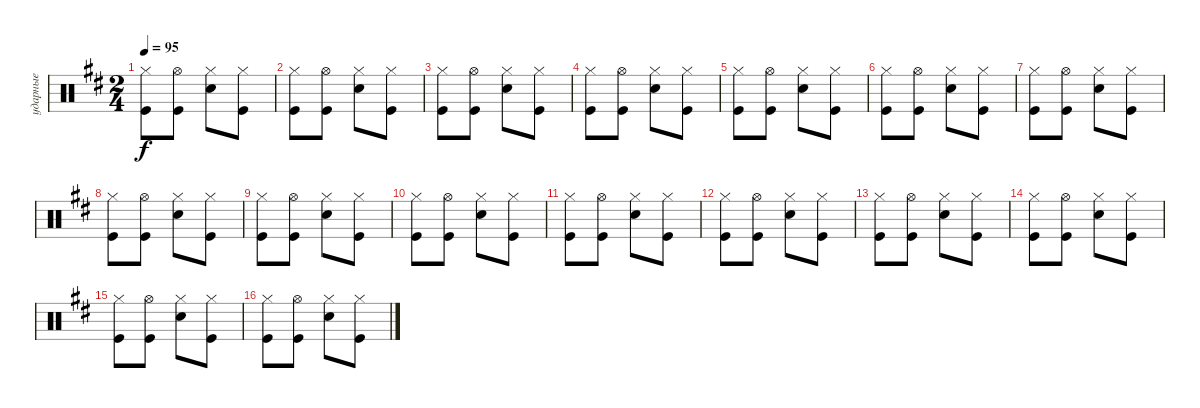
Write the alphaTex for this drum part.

\track ("ударные" "ударные") {instrument percussion}
\staff {score}
\articulation defaults
\ts (2 4)
\tempo 95
\clef neutral
\ks bminor
("Kick (hit)" "Hi-Hat (closed)").8{dy f} ("Kick (hit)" "Hi-Hat (open)").8 ("Snare (hit) 2" "Hi-Hat (closed)").8 ("Hi-Hat (closed)" "Kick (hit)").8 |
("Kick (hit)" "Hi-Hat (closed)").8 ("Kick (hit)" "Hi-Hat (open)").8 ("Snare (hit) 2" "Hi-Hat (closed)").8 ("Hi-Hat (closed)" "Kick (hit)").8 |
("Kick (hit)" "Hi-Hat (closed)").8 ("Kick (hit)" "Hi-Hat (open)").8 ("Snare (hit) 2" "Hi-Hat (closed)").8 ("Hi-Hat (closed)" "Kick (hit)").8 |
("Kick (hit)" "Hi-Hat (closed)").8 ("Kick (hit)" "Hi-Hat (open)").8 ("Snare (hit) 2" "Hi-Hat (closed)").8 ("Hi-Hat (closed)" "Kick (hit)").8 |
("Kick (hit)" "Hi-Hat (closed)").8 ("Kick (hit)" "Hi-Hat (open)").8 ("Snare (hit) 2" "Hi-Hat (closed)").8 ("Hi-Hat (closed)" "Kick (hit)").8 |
("Kick (hit)" "Hi-Hat (closed)").8 ("Kick (hit)" "Hi-Hat (open)").8 ("Snare (hit) 2" "Hi-Hat (closed)").8 ("Hi-Hat (closed)" "Kick (hit)").8 |
("Kick (hit)" "Hi-Hat (closed)").8 ("Kick (hit)" "Hi-Hat (open)").8 ("Snare (hit) 2" "Hi-Hat (closed)").8 ("Hi-Hat (closed)" "Kick (hit)").8 |
("Kick (hit)" "Hi-Hat (closed)").8 ("Kick (hit)" "Hi-Hat (open)").8 ("Snare (hit) 2" "Hi-Hat (closed)").8 ("Hi-Hat (closed)" "Kick (hit)").8 |
("Kick (hit)" "Hi-Hat (closed)").8 ("Kick (hit)" "Hi-Hat (open)").8 ("Snare (hit) 2" "Hi-Hat (closed)").8 ("Hi-Hat (closed)" "Kick (hit)").8 |
("Kick (hit)" "Hi-Hat (closed)").8 ("Kick (hit)" "Hi-Hat (open)").8 ("Snare (hit) 2" "Hi-Hat (closed)").8 ("Hi-Hat (closed)" "Kick (hit)").8 |
("Kick (hit)" "Hi-Hat (closed)").8 ("Kick (hit)" "Hi-Hat (open)").8 ("Snare (hit) 2" "Hi-Hat (closed)").8 ("Hi-Hat (closed)" "Kick (hit)").8 |
("Kick (hit)" "Hi-Hat (closed)").8 ("Kick (hit)" "Hi-Hat (open)").8 ("Snare (hit) 2" "Hi-Hat (closed)").8 ("Hi-Hat (closed)" "Kick (hit)").8 |
("Kick (hit)" "Hi-Hat (closed)").8 ("Kick (hit)" "Hi-Hat (open)").8 ("Snare (hit) 2" "Hi-Hat (closed)").8 ("Hi-Hat (closed)" "Kick (hit)").8 |
("Kick (hit)" "Hi-Hat (closed)").8 ("Kick (hit)" "Hi-Hat (open)").8 ("Snare (hit) 2" "Hi-Hat (closed)").8 ("Hi-Hat (closed)" "Kick (hit)").8 |
("Kick (hit)" "Hi-Hat (closed)").8 ("Kick (hit)" "Hi-Hat (open)").8 ("Snare (hit) 2" "Hi-Hat (closed)").8 ("Hi-Hat (closed)" "Kick (hit)").8 |
("Kick (hit)" "Hi-Hat (closed)").8 ("Kick (hit)" "Hi-Hat (open)").8 ("Snare (hit) 2" "Hi-Hat (closed)").8 ("Hi-Hat (closed)" "Kick (hit)").8
